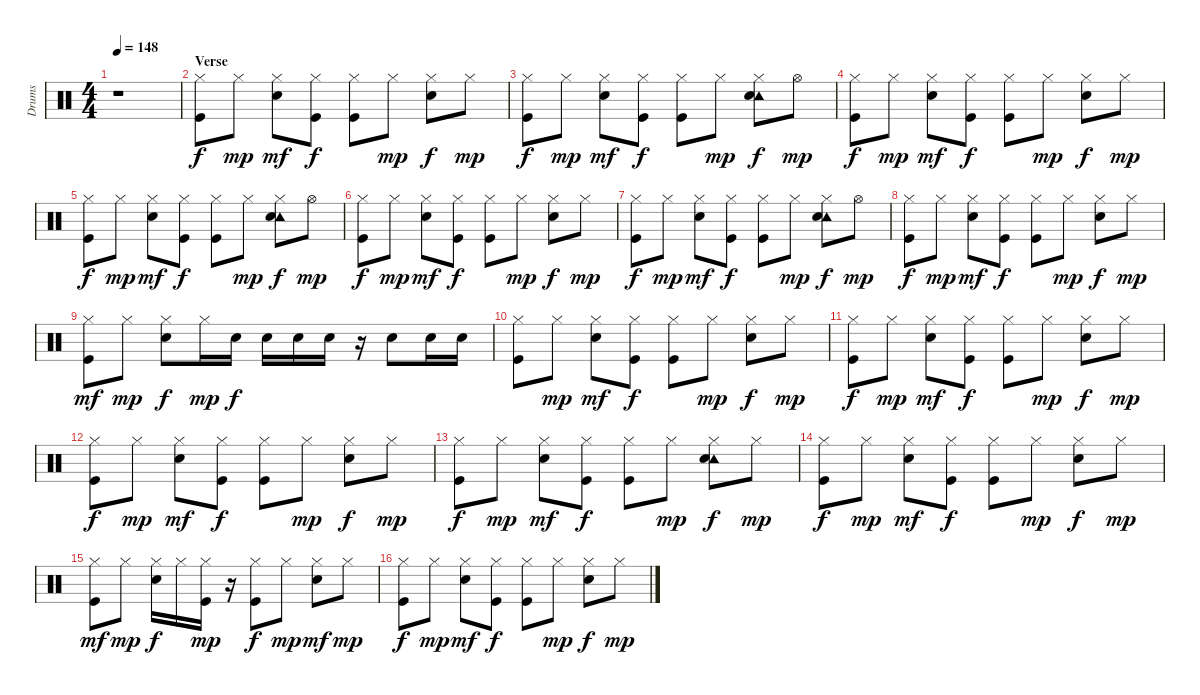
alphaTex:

\track ("Drums   " "Drums   ") {instrument percussion}
\staff {score}
\articulation defaults
\ts (4 4)
\tempo 148
\clef neutral
\ks c
r.1{dy f volume 13} |
\section ("" "Verse")
("Hi-Hat (closed)" "Kick (hit)").8 "Hi-Hat (closed)".8{dy mp} ("Hi-Hat (closed)" "Snare (hit) 2").8{dy mf} ("Hi-Hat (closed)" "Kick (hit)").8{dy f} ("Hi-Hat (closed)" "Kick (hit)").8 "Hi-Hat (closed)".8{dy mp} ("Hi-Hat (closed)" "Snare (hit) 2").8{dy f} "Hi-Hat (closed)".8{dy mp} |
("Hi-Hat (closed)" "Kick (hit)").8{dy f} "Hi-Hat (closed)".8{dy mp} ("Hi-Hat (closed)" "Snare (hit) 2").8{dy mf} ("Hi-Hat (closed)" "Kick (hit)").8{dy f} ("Hi-Hat (closed)" "Kick (hit)").8 "Hi-Hat (closed)".8{dy mp} ("Hi-Hat (closed)" "Tambourine (hit)" "Snare (hit) 2").8{dy f} "Hi-Hat (open)".8{dy mp} |
("Hi-Hat (closed)" "Kick (hit)").8{dy f} "Hi-Hat (closed)".8{dy mp} ("Hi-Hat (closed)" "Snare (hit) 2").8{dy mf} ("Hi-Hat (closed)" "Kick (hit)").8{dy f} ("Hi-Hat (closed)" "Kick (hit)").8 "Hi-Hat (closed)".8{dy mp} ("Hi-Hat (closed)" "Snare (hit) 2").8{dy f} "Hi-Hat (closed)".8{dy mp} |
("Hi-Hat (closed)" "Kick (hit)").8{dy f} "Hi-Hat (closed)".8{dy mp} ("Hi-Hat (closed)" "Snare (hit) 2").8{dy mf} ("Hi-Hat (closed)" "Kick (hit)").8{dy f} ("Hi-Hat (closed)" "Kick (hit)").8 "Hi-Hat (closed)".8{dy mp} ("Hi-Hat (closed)" "Tambourine (hit)" "Snare (hit) 2").8{dy f} "Hi-Hat (open)".8{dy mp} |
("Hi-Hat (closed)" "Kick (hit)").8{dy f} "Hi-Hat (closed)".8{dy mp} ("Hi-Hat (closed)" "Snare (hit) 2").8{dy mf} ("Hi-Hat (closed)" "Kick (hit)").8{dy f} ("Hi-Hat (closed)" "Kick (hit)").8 "Hi-Hat (closed)".8{dy mp} ("Hi-Hat (closed)" "Snare (hit) 2").8{dy f} "Hi-Hat (closed)".8{dy mp} |
("Hi-Hat (closed)" "Kick (hit)").8{dy f} "Hi-Hat (closed)".8{dy mp} ("Hi-Hat (closed)" "Snare (hit) 2").8{dy mf} ("Hi-Hat (closed)" "Kick (hit)").8{dy f} ("Hi-Hat (closed)" "Kick (hit)").8 "Hi-Hat (closed)".8{dy mp} ("Hi-Hat (closed)" "Tambourine (hit)" "Snare (hit) 2").8{dy f} "Hi-Hat (open)".8{dy mp} |
("Hi-Hat (closed)" "Kick (hit)").8{dy f} "Hi-Hat (closed)".8{dy mp} ("Hi-Hat (closed)" "Snare (hit) 2").8{dy mf} ("Hi-Hat (closed)" "Kick (hit)").8{dy f} ("Hi-Hat (closed)" "Kick (hit)").8 "Hi-Hat (closed)".8{dy mp} ("Hi-Hat (closed)" "Snare (hit) 2").8{dy f} "Hi-Hat (closed)".8{dy mp} |
("Hi-Hat (closed)" "Kick (hit)").8{dy mf} "Hi-Hat (closed)".8{dy mp} ("Hi-Hat (closed)" "Snare (hit) 2").8{dy f} "Hi-Hat (closed)".16{dy mp} "Snare (hit) 2".16{dy f} "Snare (hit) 2".16 "Snare (hit) 2".16 "Snare (hit) 2".16 r.16 "Snare (hit) 2".8 "Snare (hit) 2".16 "Snare (hit) 2".16 |
("Hi-Hat (closed)" "Kick (hit)").8 "Hi-Hat (closed)".8{dy mp} ("Hi-Hat (closed)" "Snare (hit) 2").8{dy mf} ("Hi-Hat (closed)" "Kick (hit)").8{dy f} ("Hi-Hat (closed)" "Kick (hit)").8 "Hi-Hat (closed)".8{dy mp} ("Hi-Hat (closed)" "Snare (hit) 2").8{dy f} "Hi-Hat (closed)".8{dy mp} |
("Hi-Hat (closed)" "Kick (hit)").8{dy f} "Hi-Hat (closed)".8{dy mp} ("Hi-Hat (closed)" "Snare (hit) 2").8{dy mf} ("Hi-Hat (closed)" "Kick (hit)").8{dy f} ("Hi-Hat (closed)" "Kick (hit)").8 "Hi-Hat (closed)".8{dy mp} ("Hi-Hat (closed)" "Snare (hit) 2").8{dy f} "Hi-Hat (closed)".8{dy mp} |
("Hi-Hat (closed)" "Kick (hit)").8{dy f} "Hi-Hat (closed)".8{dy mp} ("Hi-Hat (closed)" "Snare (hit) 2").8{dy mf} ("Hi-Hat (closed)" "Kick (hit)").8{dy f} ("Hi-Hat (closed)" "Kick (hit)").8 "Hi-Hat (closed)".8{dy mp} ("Hi-Hat (closed)" "Snare (hit) 2").8{dy f} "Hi-Hat (closed)".8{dy mp} |
("Hi-Hat (closed)" "Kick (hit)").8{dy f} "Hi-Hat (closed)".8{dy mp} ("Hi-Hat (closed)" "Snare (hit) 2").8{dy mf} ("Hi-Hat (closed)" "Kick (hit)").8{dy f} ("Hi-Hat (closed)" "Kick (hit)").8 "Hi-Hat (closed)".8{dy mp} ("Hi-Hat (closed)" "Tambourine (hit)" "Snare (hit) 2").8{dy f} "Hi-Hat (closed)".8{dy mp} |
("Hi-Hat (closed)" "Kick (hit)").8{dy f} "Hi-Hat (closed)".8{dy mp} ("Hi-Hat (closed)" "Snare (hit) 2").8{dy mf} ("Hi-Hat (closed)" "Kick (hit)").8{dy f} ("Hi-Hat (closed)" "Kick (hit)").8 "Hi-Hat (closed)".8{dy mp} ("Hi-Hat (closed)" "Snare (hit) 2").8{dy f} "Hi-Hat (closed)".8{dy mp} |
("Hi-Hat (closed)" "Kick (hit)").8{dy mf} "Hi-Hat (closed)".8{dy mp} ("Hi-Hat (closed)" "Snare (hit) 2").16{dy f} "Hi-Hat (closed)".16 ("Hi-Hat (closed)" "Kick (hit)").16{dy mp} r.16 ("Hi-Hat (closed)" "Kick (hit)").8{dy f} "Hi-Hat (closed)".8{dy mp} ("Hi-Hat (closed)" "Snare (hit) 2").8{dy mf} "Hi-Hat (closed)".8{dy mp} |
("Hi-Hat (closed)" "Kick (hit)").8{dy f} "Hi-Hat (closed)".8{dy mp} ("Hi-Hat (closed)" "Snare (hit) 2").8{dy mf} ("Hi-Hat (closed)" "Kick (hit)").8{dy f} ("Hi-Hat (closed)" "Kick (hit)").8 "Hi-Hat (closed)".8{dy mp} ("Hi-Hat (closed)" "Snare (hit) 2").8{dy f} "Hi-Hat (closed)".8{dy mp}
